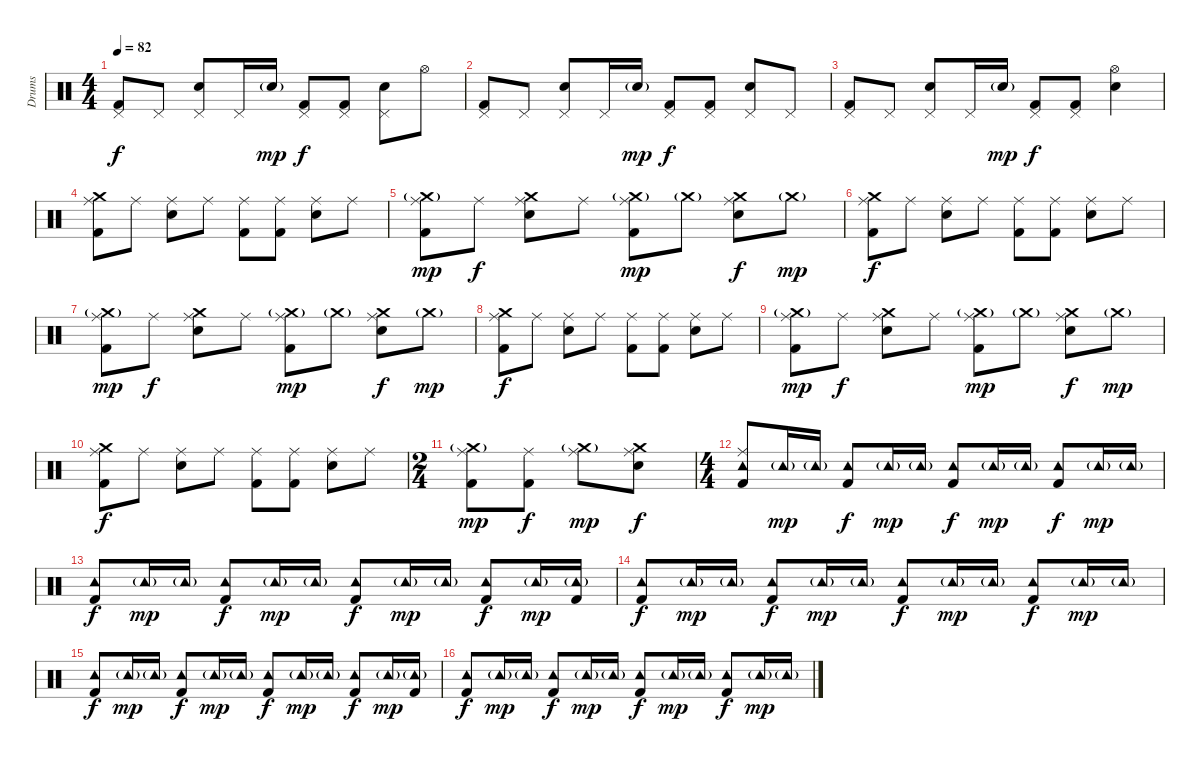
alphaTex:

\track ("Drums" "Drums") {instrument percussion}
\staff {score}
\articulation defaults
\ts (4 4)
\tempo 82
\clef neutral
\ks c
("Pedal Hi-Hat (hit)" "Kick (hit) 2").8{dy f} "Pedal Hi-Hat (hit)".8 ("Pedal Hi-Hat (hit)" "Snare (hit) 2").8 "Pedal Hi-Hat (hit)".16 "Snare (hit) 2"{g}.16{dy mp} ("Pedal Hi-Hat (hit)" "Kick (hit) 2").8{dy f} ("Pedal Hi-Hat (hit)" "Kick (hit) 2").8 ("Pedal Hi-Hat (hit)" "Snare (hit) 2").8 "Hi-Hat (open)".8 |
("Pedal Hi-Hat (hit)" "Kick (hit) 2").8 "Pedal Hi-Hat (hit)".8 ("Pedal Hi-Hat (hit)" "Snare (hit) 2").8 "Pedal Hi-Hat (hit)".16 "Snare (hit) 2"{g}.16{dy mp} ("Pedal Hi-Hat (hit)" "Kick (hit) 2").8{dy f} ("Pedal Hi-Hat (hit)" "Kick (hit) 2").8 ("Pedal Hi-Hat (hit)" "Snare (hit) 2").8 "Pedal Hi-Hat (hit)".8 |
("Pedal Hi-Hat (hit)" "Kick (hit) 2").8 "Pedal Hi-Hat (hit)".8 ("Pedal Hi-Hat (hit)" "Snare (hit) 2").8 "Pedal Hi-Hat (hit)".16 "Snare (hit) 2"{g}.16{dy mp} ("Pedal Hi-Hat (hit)" "Kick (hit) 2").8{dy f} ("Pedal Hi-Hat (hit)" "Kick (hit) 2").8 ("Hi-Hat (open)" "Snare (hit) 2").4 |
("Ride (middle)" "Kick (hit) 2" "Crash medium (hit)").8 "Ride (middle)".8 ("Ride (middle)" "Snare (hit) 2").8 "Ride (middle)".8 ("Ride (middle)" "Kick (hit) 2").8 ("Ride (middle)" "Kick (hit) 2").8 ("Ride (middle)" "Snare (hit) 2").8 "Ride (middle)".8 |
("Ride (middle)" "Kick (hit) 2" "Crash medium (hit)"{g}).8{dy mp} "Ride (middle)".8{dy f} ("Ride (middle)" "Snare (hit) 2" "Crash medium (hit)").8 "Ride (middle)".8 ("Ride (middle)" "Kick (hit) 2" "Crash medium (hit)"{g}).8{dy mp} "Crash medium (hit)"{g}.8 ("Ride (middle)" "Snare (hit) 2" "Crash medium (hit)").8{dy f} "Crash medium (hit)"{g}.8{dy mp} |
("Ride (middle)" "Kick (hit) 2" "Crash medium (hit)").8{dy f} "Ride (middle)".8 ("Ride (middle)" "Snare (hit) 2").8 "Ride (middle)".8 ("Ride (middle)" "Kick (hit) 2").8 ("Ride (middle)" "Kick (hit) 2").8 ("Ride (middle)" "Snare (hit) 2").8 "Ride (middle)".8 |
("Ride (middle)" "Kick (hit) 2" "Crash medium (hit)"{g}).8{dy mp} "Ride (middle)".8{dy f} ("Ride (middle)" "Snare (hit) 2" "Crash medium (hit)").8 "Ride (middle)".8 ("Ride (middle)" "Kick (hit) 2" "Crash medium (hit)"{g}).8{dy mp} "Crash medium (hit)"{g}.8 ("Ride (middle)" "Snare (hit) 2" "Crash medium (hit)").8{dy f} "Crash medium (hit)"{g}.8{dy mp} |
("Ride (middle)" "Kick (hit) 2" "Crash medium (hit)").8{dy f} "Ride (middle)".8 ("Ride (middle)" "Snare (hit) 2").8 "Ride (middle)".8 ("Ride (middle)" "Kick (hit) 2").8 ("Ride (middle)" "Kick (hit) 2").8 ("Ride (middle)" "Snare (hit) 2").8 "Ride (middle)".8 |
("Ride (middle)" "Kick (hit) 2" "Crash medium (hit)"{g}).8{dy mp} "Ride (middle)".8{dy f} ("Ride (middle)" "Snare (hit) 2" "Crash medium (hit)").8 "Ride (middle)".8 ("Ride (middle)" "Kick (hit) 2" "Crash medium (hit)"{g}).8{dy mp} "Crash medium (hit)"{g}.8 ("Ride (middle)" "Snare (hit) 2" "Crash medium (hit)").8{dy f} "Crash medium (hit)"{g}.8{dy mp} |
("Ride (middle)" "Kick (hit) 2" "Crash medium (hit)").8{dy f} "Ride (middle)".8 ("Ride (middle)" "Snare (hit) 2").8 "Ride (middle)".8 ("Ride (middle)" "Kick (hit) 2").8 ("Ride (middle)" "Kick (hit) 2").8 ("Ride (middle)" "Snare (hit) 2").8 "Ride (middle)".8 |
\ts (2 4)
("Ride (middle)" "Kick (hit) 2" "Crash medium (hit)"{g}).8{dy mp} ("Ride (middle)" "Kick (hit) 2").8{dy f} ("Ride (middle)" "Crash medium (hit)"{g}).8{dy mp} ("Ride (middle)" "Snare (hit) 2" "Crash medium (hit)").8{dy f} |
\ts (4 4)
("Tambourine (hit)" "Kick (hit) 2" "Ride (middle)").8 "Tambourine (hit)"{g}.16{dy mp} "Tambourine (hit)"{g}.16 ("Tambourine (hit)" "Kick (hit) 2").8{dy f} "Tambourine (hit)"{g}.16{dy mp} "Tambourine (hit)"{g}.16 ("Tambourine (hit)" "Kick (hit) 2").8{dy f} "Tambourine (hit)"{g}.16{dy mp} "Tambourine (hit)"{g}.16 ("Tambourine (hit)" "Kick (hit) 2").8{dy f} "Tambourine (hit)"{g}.16{dy mp} "Tambourine (hit)"{g}.16 |
("Tambourine (hit)" "Kick (hit) 2").8{dy f} "Tambourine (hit)"{g}.16{dy mp} "Tambourine (hit)"{g}.16 ("Tambourine (hit)" "Kick (hit) 2").8{dy f} "Tambourine (hit)"{g}.16{dy mp} "Tambourine (hit)"{g}.16 ("Tambourine (hit)" "Kick (hit) 2").8{dy f} "Tambourine (hit)"{g}.16{dy mp} "Tambourine (hit)"{g}.16 ("Tambourine (hit)" "Kick (hit) 2").8{dy f} "Tambourine (hit)"{g}.16{dy mp} ("Tambourine (hit)"{g} "Kick (hit) 2").16 |
("Tambourine (hit)" "Kick (hit) 2").8{dy f} "Tambourine (hit)"{g}.16{dy mp} "Tambourine (hit)"{g}.16 ("Tambourine (hit)" "Kick (hit) 2").8{dy f} "Tambourine (hit)"{g}.16{dy mp} "Tambourine (hit)"{g}.16 ("Tambourine (hit)" "Kick (hit) 2").8{dy f} "Tambourine (hit)"{g}.16{dy mp} "Tambourine (hit)"{g}.16 ("Tambourine (hit)" "Kick (hit) 2").8{dy f} "Tambourine (hit)"{g}.16{dy mp} "Tambourine (hit)"{g}.16 |
("Tambourine (hit)" "Kick (hit) 2").8{dy f} "Tambourine (hit)"{g}.16{dy mp} "Tambourine (hit)"{g}.16 ("Tambourine (hit)" "Kick (hit) 2").8{dy f} "Tambourine (hit)"{g}.16{dy mp} "Tambourine (hit)"{g}.16 ("Tambourine (hit)" "Kick (hit) 2").8{dy f} "Tambourine (hit)"{g}.16{dy mp} "Tambourine (hit)"{g}.16 ("Tambourine (hit)" "Kick (hit) 2").8{dy f} "Tambourine (hit)"{g}.16{dy mp} ("Tambourine (hit)"{g} "Kick (hit) 2").16 |
("Tambourine (hit)" "Kick (hit) 2").8{dy f} "Tambourine (hit)"{g}.16{dy mp} "Tambourine (hit)"{g}.16 ("Tambourine (hit)" "Kick (hit) 2").8{dy f} "Tambourine (hit)"{g}.16{dy mp} "Tambourine (hit)"{g}.16 ("Tambourine (hit)" "Kick (hit) 2").8{dy f} "Tambourine (hit)"{g}.16{dy mp} "Tambourine (hit)"{g}.16 ("Tambourine (hit)" "Kick (hit) 2").8{dy f} "Tambourine (hit)"{g}.16{dy mp} "Tambourine (hit)"{g}.16
